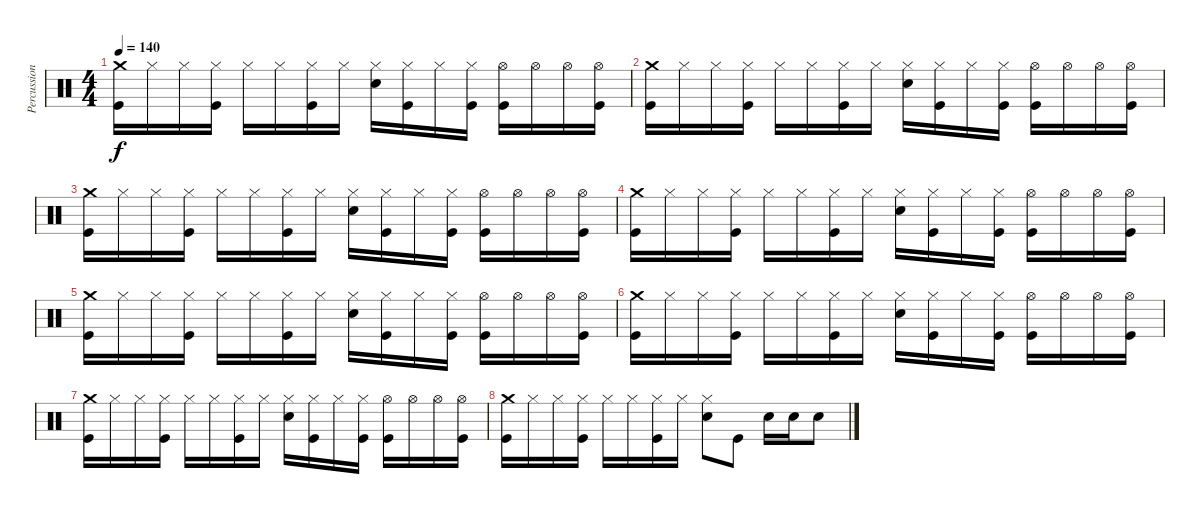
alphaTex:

\track ("Percussion" "Percussion") {instrument percussion}
\staff {score}
\articulation defaults
\ts (4 4)
\tempo 140
\clef neutral
\ks c
("Crash medium (hit)" "Kick (hit)").16{dy f volume 8} "Hi-Hat (closed)".16 "Hi-Hat (closed)".16 ("Hi-Hat (closed)" "Kick (hit)").16 "Hi-Hat (closed)".16 "Hi-Hat (closed)".16 ("Hi-Hat (closed)" "Kick (hit)").16 "Hi-Hat (closed)".16 ("Hi-Hat (closed)" "Snare (hit) 2").16 ("Hi-Hat (closed)" "Kick (hit)").16 "Hi-Hat (closed)".16 ("Hi-Hat (closed)" "Kick (hit)").16 ("Hi-Hat (open)" "Kick (hit)").16 "Hi-Hat (open)".16 "Hi-Hat (open)".16 ("Hi-Hat (open)" "Kick (hit)").16 |
("Crash medium (hit)" "Kick (hit)").16 "Hi-Hat (closed)".16 "Hi-Hat (closed)".16 ("Hi-Hat (closed)" "Kick (hit)").16 "Hi-Hat (closed)".16 "Hi-Hat (closed)".16 ("Hi-Hat (closed)" "Kick (hit)").16 "Hi-Hat (closed)".16 ("Hi-Hat (closed)" "Snare (hit) 2").16 ("Hi-Hat (closed)" "Kick (hit)").16 "Hi-Hat (closed)".16 ("Hi-Hat (closed)" "Kick (hit)").16 ("Hi-Hat (open)" "Kick (hit)").16 "Hi-Hat (open)".16 "Hi-Hat (open)".16 ("Hi-Hat (open)" "Kick (hit)").16 |
("Crash medium (hit)" "Kick (hit)").16 "Hi-Hat (closed)".16 "Hi-Hat (closed)".16 ("Hi-Hat (closed)" "Kick (hit)").16 "Hi-Hat (closed)".16 "Hi-Hat (closed)".16 ("Hi-Hat (closed)" "Kick (hit)").16 "Hi-Hat (closed)".16 ("Hi-Hat (closed)" "Snare (hit) 2").16 ("Hi-Hat (closed)" "Kick (hit)").16 "Hi-Hat (closed)".16 ("Hi-Hat (closed)" "Kick (hit)").16 ("Hi-Hat (open)" "Kick (hit)").16 "Hi-Hat (open)".16 "Hi-Hat (open)".16 ("Hi-Hat (open)" "Kick (hit)").16 |
("Crash medium (hit)" "Kick (hit)").16 "Hi-Hat (closed)".16 "Hi-Hat (closed)".16 ("Hi-Hat (closed)" "Kick (hit)").16 "Hi-Hat (closed)".16 "Hi-Hat (closed)".16 ("Hi-Hat (closed)" "Kick (hit)").16 "Hi-Hat (closed)".16 ("Hi-Hat (closed)" "Snare (hit) 2").16 ("Hi-Hat (closed)" "Kick (hit)").16 "Hi-Hat (closed)".16 ("Hi-Hat (closed)" "Kick (hit)").16 ("Hi-Hat (open)" "Kick (hit)").16 "Hi-Hat (open)".16 "Hi-Hat (open)".16 ("Hi-Hat (open)" "Kick (hit)").16 |
("Crash medium (hit)" "Kick (hit)").16{volume 0} "Hi-Hat (closed)".16 "Hi-Hat (closed)".16 ("Hi-Hat (closed)" "Kick (hit)").16 "Hi-Hat (closed)".16 "Hi-Hat (closed)".16 ("Hi-Hat (closed)" "Kick (hit)").16 "Hi-Hat (closed)".16 ("Hi-Hat (closed)" "Snare (hit) 2").16 ("Hi-Hat (closed)" "Kick (hit)").16 "Hi-Hat (closed)".16 ("Hi-Hat (closed)" "Kick (hit)").16 ("Hi-Hat (open)" "Kick (hit)").16 "Hi-Hat (open)".16 "Hi-Hat (open)".16 ("Hi-Hat (open)" "Kick (hit)").16 |
("Crash medium (hit)" "Kick (hit)").16 "Hi-Hat (closed)".16 "Hi-Hat (closed)".16 ("Hi-Hat (closed)" "Kick (hit)").16 "Hi-Hat (closed)".16 "Hi-Hat (closed)".16 ("Hi-Hat (closed)" "Kick (hit)").16 "Hi-Hat (closed)".16 ("Hi-Hat (closed)" "Snare (hit) 2").16 ("Hi-Hat (closed)" "Kick (hit)").16 "Hi-Hat (closed)".16 ("Hi-Hat (closed)" "Kick (hit)").16 ("Hi-Hat (open)" "Kick (hit)").16 "Hi-Hat (open)".16 "Hi-Hat (open)".16 ("Hi-Hat (open)" "Kick (hit)").16 |
("Crash medium (hit)" "Kick (hit)").16 "Hi-Hat (closed)".16 "Hi-Hat (closed)".16 ("Hi-Hat (closed)" "Kick (hit)").16 "Hi-Hat (closed)".16 "Hi-Hat (closed)".16 ("Hi-Hat (closed)" "Kick (hit)").16 "Hi-Hat (closed)".16 ("Hi-Hat (closed)" "Snare (hit) 2").16 ("Hi-Hat (closed)" "Kick (hit)").16 "Hi-Hat (closed)".16 ("Hi-Hat (closed)" "Kick (hit)").16 ("Hi-Hat (open)" "Kick (hit)").16 "Hi-Hat (open)".16 "Hi-Hat (open)".16 ("Hi-Hat (open)" "Kick (hit)").16 |
("Crash medium (hit)" "Kick (hit)").16 "Hi-Hat (closed)".16 "Hi-Hat (closed)".16 ("Hi-Hat (closed)" "Kick (hit)").16 "Hi-Hat (closed)".16 "Hi-Hat (closed)".16 ("Hi-Hat (closed)" "Kick (hit)").16 "Hi-Hat (closed)".16 ("Hi-Hat (closed)" "Snare (hit) 2").8 "Kick (hit)".8 "Snare (hit) 2".16 "Snare (hit) 2".16 "Snare (hit) 2".8
